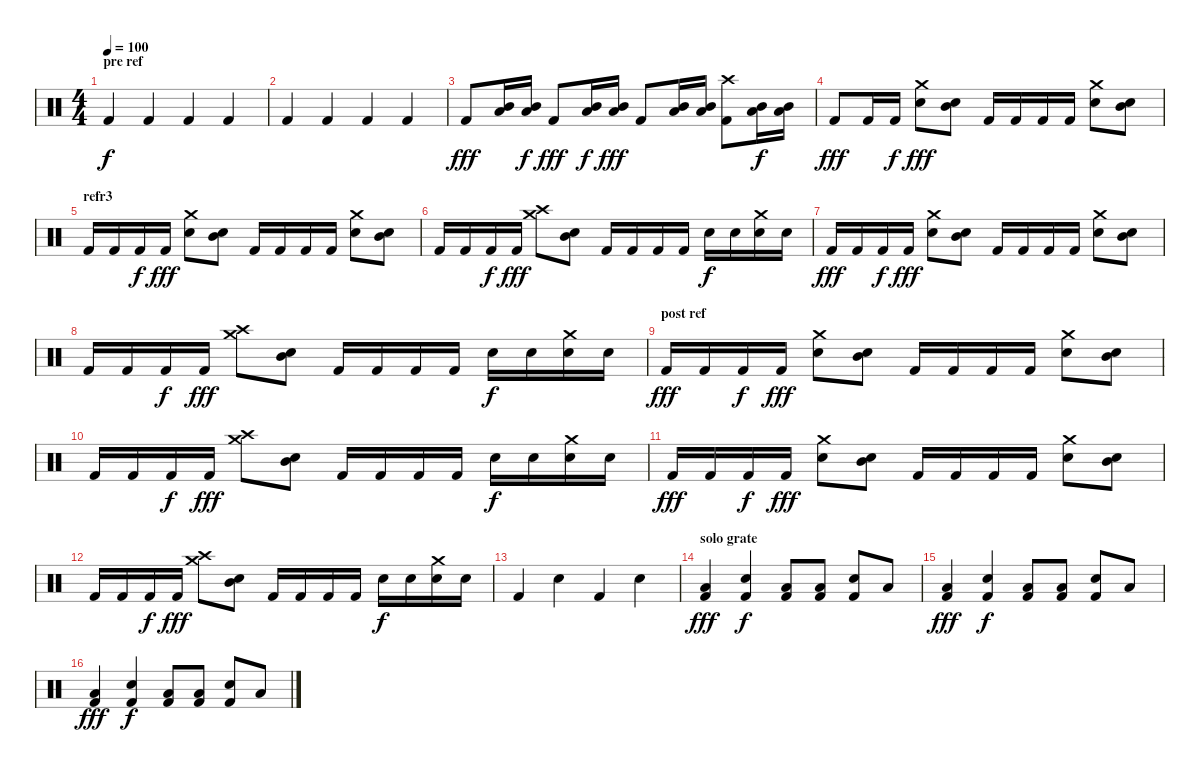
\track "" {instrument percussion}
\staff {score}
\articulation defaults
\ts (4 4)
\section ("" "pre ref")
\tempo 100
\clef neutral
\ks c "Kick (hit) 2".4{dy f} "Kick (hit) 2".4 "Kick (hit) 2".4 "Kick (hit) 2".4
|
"Kick (hit) 2".4 "Kick (hit) 2".4 "Kick (hit) 2".4 "Kick (hit) 2".4 |
"Kick (hit) 2".8{dy fff} ("Low Tom (hit)" "Mid Tom (hit)").16 ("Low Tom (hit)" "Mid Tom (hit)").16{dy f} "Kick (hit) 2".8{dy fff} ("Low Tom (hit)" "Mid Tom (hit)").16{dy f} ("Mid Tom (hit)" "Low Tom (hit)").16{dy fff} "Kick (hit) 2".8 ("Low Tom (hit)" "Mid Tom (hit)").16 ("Low Tom (hit)" "Mid Tom (hit)").16 ("Kick (hit) 2" "Crash high (hit)").8 ("Low Tom (hit)" "Mid Tom (hit)").16{dy f} ("Low Tom (hit)" "Mid Tom (hit)").16 |
"Kick (hit) 2".8{dy fff} "Kick (hit) 2".16 "Kick (hit) 2".16{dy f} ("Electric Snare (hit)" "Crash medium (hit)").8{dy fff} ("Snare (hit) 2" "Mid Tom (hit)").8 "Kick (hit) 2".16 "Kick (hit) 2".16 "Kick (hit) 2".16 "Kick (hit) 2".16 ("Electric Snare (hit)" "Crash medium (hit)").8 ("Snare (hit) 2" "Mid Tom (hit)").8 |
\section ("" "refr3")
"Kick (hit) 2".16 "Kick (hit) 2".16 "Kick (hit) 2".16{dy f} "Kick (hit) 2".16{dy fff} ("Electric Snare (hit)" "Crash medium (hit)").8 ("Snare (hit) 2" "Mid Tom (hit)").8 "Kick (hit) 2".16 "Kick (hit) 2".16 "Kick (hit) 2".16 "Kick (hit) 2".16 ("Electric Snare (hit)" "Crash medium (hit)").8 ("Snare (hit) 2" "Mid Tom (hit)").8 |
"Kick (hit) 2".16 "Kick (hit) 2".16 "Kick (hit) 2".16{dy f} "Kick (hit) 2".16{dy fff} ("Crash high (hit)" "Crash medium (hit)").8 ("Snare (hit) 2" "Mid Tom (hit)").8 "Kick (hit) 2".16 "Kick (hit) 2".16 "Kick (hit) 2".16 "Kick (hit) 2".16 "Electric Snare (hit)".16{dy f} "Electric Snare (hit)".16 ("Electric Snare (hit)" "Crash medium (hit)").16 "Electric Snare (hit)".16 |
"Kick (hit) 2".16{dy fff} "Kick (hit) 2".16 "Kick (hit) 2".16{dy f} "Kick (hit) 2".16{dy fff} ("Electric Snare (hit)" "Crash medium (hit)").8 ("Snare (hit) 2" "Mid Tom (hit)").8 "Kick (hit) 2".16 "Kick (hit) 2".16 "Kick (hit) 2".16 "Kick (hit) 2".16 ("Electric Snare (hit)" "Crash medium (hit)").8 ("Snare (hit) 2" "Mid Tom (hit)").8 |
"Kick (hit) 2".16 "Kick (hit) 2".16 "Kick (hit) 2".16{dy f} "Kick (hit) 2".16{dy fff} ("Crash high (hit)" "Crash medium (hit)").8 ("Snare (hit) 2" "Mid Tom (hit)").8 "Kick (hit) 2".16 "Kick (hit) 2".16 "Kick (hit) 2".16 "Kick (hit) 2".16 "Electric Snare (hit)".16{dy f} "Electric Snare (hit)".16 ("Electric Snare (hit)" "Crash medium (hit)").16 "Electric Snare (hit)".16 |
\section ("" "post ref")
"Kick (hit) 2".16{dy fff} "Kick (hit) 2".16 "Kick (hit) 2".16{dy f} "Kick (hit) 2".16{dy fff} ("Electric Snare (hit)" "Crash medium (hit)").8 ("Snare (hit) 2" "Mid Tom (hit)").8 "Kick (hit) 2".16 "Kick (hit) 2".16 "Kick (hit) 2".16 "Kick (hit) 2".16 ("Electric Snare (hit)" "Crash medium (hit)").8 ("Snare (hit) 2" "Mid Tom (hit)").8 |
"Kick (hit) 2".16 "Kick (hit) 2".16 "Kick (hit) 2".16{dy f} "Kick (hit) 2".16{dy fff} ("Crash high (hit)" "Crash medium (hit)").8 ("Snare (hit) 2" "Mid Tom (hit)").8 "Kick (hit) 2".16 "Kick (hit) 2".16 "Kick (hit) 2".16 "Kick (hit) 2".16 "Electric Snare (hit)".16{dy f} "Electric Snare (hit)".16 ("Electric Snare (hit)" "Crash medium (hit)").16 "Electric Snare (hit)".16 |
"Kick (hit) 2".16{dy fff} "Kick (hit) 2".16 "Kick (hit) 2".16{dy f} "Kick (hit) 2".16{dy fff} ("Electric Snare (hit)" "Crash medium (hit)").8 ("Snare (hit) 2" "Mid Tom (hit)").8 "Kick (hit) 2".16 "Kick (hit) 2".16 "Kick (hit) 2".16 "Kick (hit) 2".16 ("Electric Snare (hit)" "Crash medium (hit)").8 ("Snare (hit) 2" "Mid Tom (hit)").8 |
"Kick (hit) 2".16 "Kick (hit) 2".16 "Kick (hit) 2".16{dy f} "Kick (hit) 2".16{dy fff} ("Crash high (hit)" "Crash medium (hit)").8 ("Snare (hit) 2" "Mid Tom (hit)").8 "Kick (hit) 2".16 "Kick (hit) 2".16 "Kick (hit) 2".16 "Kick (hit) 2".16 "Electric Snare (hit)".16{dy f} "Electric Snare (hit)".16 ("Electric Snare (hit)" "Crash medium (hit)").16 "Electric Snare (hit)".16 |
"Kick (hit) 2".4 "Electric Snare (hit)".4 "Kick (hit) 2".4 "Electric Snare (hit)".4 |
\section ("" "solo grate")
("Kick (hit) 2" "Low Tom (hit)").4{dy fff} ("Electric Snare (hit)" "Kick (hit) 2").4{dy f} ("Kick (hit) 2" "Low Tom (hit)").8 ("Kick (hit) 2" "Low Tom (hit)").8 ("Kick (hit) 2" "Electric Snare (hit)").8 "Low Tom (hit)".8 |
("Kick (hit) 2" "Low Tom (hit)").4{dy fff} ("Electric Snare (hit)" "Kick (hit) 2").4{dy f} ("Kick (hit) 2" "Low Tom (hit)").8 ("Kick (hit) 2" "Low Tom (hit)").8 ("Kick (hit) 2" "Electric Snare (hit)").8 "Low Tom (hit)".8 |
("Kick (hit) 2" "Low Tom (hit)").4{dy fff} ("Electric Snare (hit)" "Kick (hit) 2").4{dy f} ("Kick (hit) 2" "Low Tom (hit)").8 ("Kick (hit) 2" "Low Tom (hit)").8 ("Kick (hit) 2" "Electric Snare (hit)").8 "Low Tom (hit)".8
